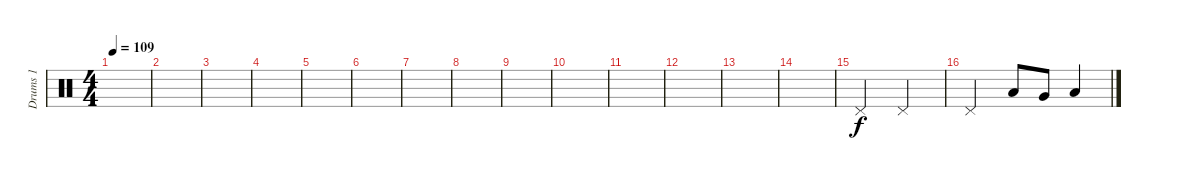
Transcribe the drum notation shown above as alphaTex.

\track ("Drums 1" "Drums 1") {instrument percussion}
\staff {score}
\articulation defaults
\ts (4 4)
\tempo 109
\clef neutral
\ks c
|
|
|
|
|
|
|
|
|
|
|
|
|
|
"Pedal Hi-Hat (hit)".2 "Pedal Hi-Hat (hit)".2 |
"Pedal Hi-Hat (hit)".2 "Low Tom (hit)".8 "Very Low Tom (hit)".8 "Low Floor Tom (hit)".4
